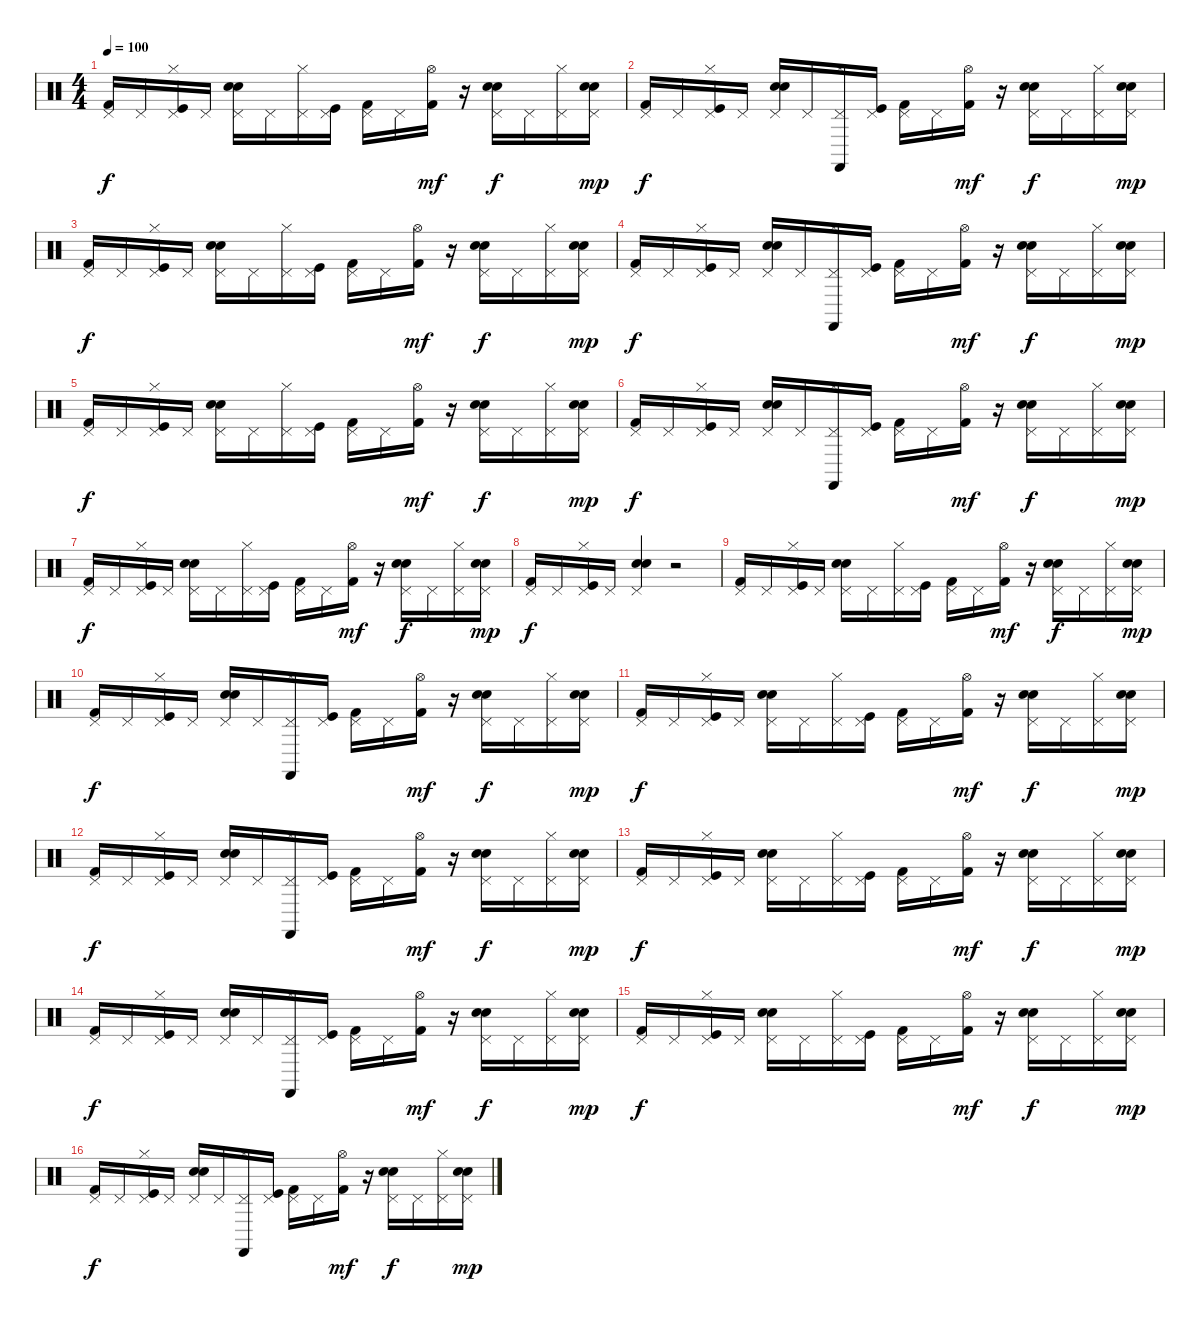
\track "" {instrument percussion}
\staff {score}
\articulation defaults
\ts (4 4)
\tempo 100
\clef neutral
\ks c
("Pedal Hi-Hat (hit)" "Kick (hit) 2").16{dy f} "Pedal Hi-Hat (hit)".16 ("Hi-Hat (closed)" "Pedal Hi-Hat (hit)" "Kick (hit)").16 "Pedal Hi-Hat (hit)".16 ("Snare (hit) 2" "Electric Snare (hit)" "Pedal Hi-Hat (hit)").16 "Pedal Hi-Hat (hit)".16 ("Hi-Hat (closed)" "Pedal Hi-Hat (hit)").16 ("Pedal Hi-Hat (hit)" "Kick (hit)").16 ("Pedal Hi-Hat (hit)" "Kick (hit) 2").16 "Pedal Hi-Hat (hit)".16 ("Hi-Hat (open)" "Kick (hit) 2").16{dy mf} r.16 ("Snare (hit) 2" "Electric Snare (hit)" "Pedal Hi-Hat (hit)").16{dy f} "Pedal Hi-Hat (hit)".16 ("Hi-Hat (closed)" "Pedal Hi-Hat (hit)").16 ("Pedal Hi-Hat (hit)" "Electric Snare (hit)" "Snare (hit) 2").16{dy mp} |
("Pedal Hi-Hat (hit)" "Kick (hit) 2").16{dy f} "Pedal Hi-Hat (hit)".16 ("Hi-Hat (closed)" "Pedal Hi-Hat (hit)" "Kick (hit)").16 "Pedal Hi-Hat (hit)".16 ("Snare (hit) 2" "Electric Snare (hit)" "Pedal Hi-Hat (hit)").16 "Pedal Hi-Hat (hit)".16 ("Castanets (hit)" "Hi-Hat (closed)" "Pedal Hi-Hat (hit)").16 ("Pedal Hi-Hat (hit)" "Kick (hit)").16 ("Pedal Hi-Hat (hit)" "Kick (hit) 2").16 "Pedal Hi-Hat (hit)".16 ("Hi-Hat (open)" "Kick (hit) 2").16{dy mf} r.16 ("Snare (hit) 2" "Electric Snare (hit)" "Pedal Hi-Hat (hit)").16{dy f} "Pedal Hi-Hat (hit)".16 ("Hi-Hat (closed)" "Pedal Hi-Hat (hit)").16 ("Pedal Hi-Hat (hit)" "Electric Snare (hit)" "Snare (hit) 2").16{dy mp} |
("Pedal Hi-Hat (hit)" "Kick (hit) 2").16{dy f} "Pedal Hi-Hat (hit)".16 ("Hi-Hat (closed)" "Pedal Hi-Hat (hit)" "Kick (hit)").16 "Pedal Hi-Hat (hit)".16 ("Snare (hit) 2" "Electric Snare (hit)" "Pedal Hi-Hat (hit)").16 "Pedal Hi-Hat (hit)".16 ("Hi-Hat (closed)" "Pedal Hi-Hat (hit)").16 ("Pedal Hi-Hat (hit)" "Kick (hit)").16 ("Pedal Hi-Hat (hit)" "Kick (hit) 2").16 "Pedal Hi-Hat (hit)".16 ("Hi-Hat (open)" "Kick (hit) 2").16{dy mf} r.16 ("Snare (hit) 2" "Electric Snare (hit)" "Pedal Hi-Hat (hit)").16{dy f} "Pedal Hi-Hat (hit)".16 ("Hi-Hat (closed)" "Pedal Hi-Hat (hit)").16 ("Pedal Hi-Hat (hit)" "Electric Snare (hit)" "Snare (hit) 2").16{dy mp} |
("Pedal Hi-Hat (hit)" "Kick (hit) 2").16{dy f} "Pedal Hi-Hat (hit)".16 ("Hi-Hat (closed)" "Pedal Hi-Hat (hit)" "Kick (hit)").16 "Pedal Hi-Hat (hit)".16 ("Snare (hit) 2" "Electric Snare (hit)" "Pedal Hi-Hat (hit)").16 "Pedal Hi-Hat (hit)".16 ("Castanets (hit)" "Hi-Hat (closed)" "Pedal Hi-Hat (hit)").16 ("Pedal Hi-Hat (hit)" "Kick (hit)").16 ("Pedal Hi-Hat (hit)" "Kick (hit) 2").16 "Pedal Hi-Hat (hit)".16 ("Hi-Hat (open)" "Kick (hit) 2").16{dy mf} r.16 ("Snare (hit) 2" "Electric Snare (hit)" "Pedal Hi-Hat (hit)").16{dy f} "Pedal Hi-Hat (hit)".16 ("Hi-Hat (closed)" "Pedal Hi-Hat (hit)").16 ("Pedal Hi-Hat (hit)" "Electric Snare (hit)" "Snare (hit) 2").16{dy mp} |
("Pedal Hi-Hat (hit)" "Kick (hit) 2").16{dy f} "Pedal Hi-Hat (hit)".16 ("Hi-Hat (closed)" "Pedal Hi-Hat (hit)" "Kick (hit)").16 "Pedal Hi-Hat (hit)".16 ("Snare (hit) 2" "Electric Snare (hit)" "Pedal Hi-Hat (hit)").16 "Pedal Hi-Hat (hit)".16 ("Hi-Hat (closed)" "Pedal Hi-Hat (hit)").16 ("Pedal Hi-Hat (hit)" "Kick (hit)").16 ("Pedal Hi-Hat (hit)" "Kick (hit) 2").16 "Pedal Hi-Hat (hit)".16 ("Hi-Hat (open)" "Kick (hit) 2").16{dy mf} r.16 ("Snare (hit) 2" "Electric Snare (hit)" "Pedal Hi-Hat (hit)").16{dy f} "Pedal Hi-Hat (hit)".16 ("Hi-Hat (closed)" "Pedal Hi-Hat (hit)").16 ("Pedal Hi-Hat (hit)" "Electric Snare (hit)" "Snare (hit) 2").16{dy mp} |
("Pedal Hi-Hat (hit)" "Kick (hit) 2").16{dy f} "Pedal Hi-Hat (hit)".16 ("Hi-Hat (closed)" "Pedal Hi-Hat (hit)" "Kick (hit)").16 "Pedal Hi-Hat (hit)".16 ("Snare (hit) 2" "Electric Snare (hit)" "Pedal Hi-Hat (hit)").16 "Pedal Hi-Hat (hit)".16 ("Castanets (hit)" "Hi-Hat (closed)" "Pedal Hi-Hat (hit)").16 ("Pedal Hi-Hat (hit)" "Kick (hit)").16 ("Pedal Hi-Hat (hit)" "Kick (hit) 2").16 "Pedal Hi-Hat (hit)".16 ("Hi-Hat (open)" "Kick (hit) 2").16{dy mf} r.16 ("Snare (hit) 2" "Electric Snare (hit)" "Pedal Hi-Hat (hit)").16{dy f} "Pedal Hi-Hat (hit)".16 ("Hi-Hat (closed)" "Pedal Hi-Hat (hit)").16 ("Pedal Hi-Hat (hit)" "Electric Snare (hit)" "Snare (hit) 2").16{dy mp} |
("Pedal Hi-Hat (hit)" "Kick (hit) 2").16{dy f} "Pedal Hi-Hat (hit)".16 ("Hi-Hat (closed)" "Pedal Hi-Hat (hit)" "Kick (hit)").16 "Pedal Hi-Hat (hit)".16 ("Snare (hit) 2" "Electric Snare (hit)" "Pedal Hi-Hat (hit)").16 "Pedal Hi-Hat (hit)".16 ("Hi-Hat (closed)" "Pedal Hi-Hat (hit)").16 ("Pedal Hi-Hat (hit)" "Kick (hit)").16 ("Pedal Hi-Hat (hit)" "Kick (hit) 2").16 "Pedal Hi-Hat (hit)".16 ("Hi-Hat (open)" "Kick (hit) 2").16{dy mf} r.16 ("Snare (hit) 2" "Electric Snare (hit)" "Pedal Hi-Hat (hit)").16{dy f} "Pedal Hi-Hat (hit)".16 ("Hi-Hat (closed)" "Pedal Hi-Hat (hit)").16 ("Pedal Hi-Hat (hit)" "Electric Snare (hit)" "Snare (hit) 2").16{dy mp} |
("Pedal Hi-Hat (hit)" "Kick (hit) 2").16{dy f} "Pedal Hi-Hat (hit)".16 ("Hi-Hat (closed)" "Pedal Hi-Hat (hit)" "Kick (hit)").16 "Pedal Hi-Hat (hit)".16 ("Snare (hit) 2" "Electric Snare (hit)" "Pedal Hi-Hat (hit)").4 r.2 |
("Pedal Hi-Hat (hit)" "Kick (hit) 2").16 "Pedal Hi-Hat (hit)".16 ("Hi-Hat (closed)" "Pedal Hi-Hat (hit)" "Kick (hit)").16 "Pedal Hi-Hat (hit)".16 ("Snare (hit) 2" "Electric Snare (hit)" "Pedal Hi-Hat (hit)").16 "Pedal Hi-Hat (hit)".16 ("Hi-Hat (closed)" "Pedal Hi-Hat (hit)").16 ("Pedal Hi-Hat (hit)" "Kick (hit)").16 ("Pedal Hi-Hat (hit)" "Kick (hit) 2").16 "Pedal Hi-Hat (hit)".16 ("Hi-Hat (open)" "Kick (hit) 2").16{dy mf} r.16 ("Snare (hit) 2" "Electric Snare (hit)" "Pedal Hi-Hat (hit)").16{dy f} "Pedal Hi-Hat (hit)".16 ("Hi-Hat (closed)" "Pedal Hi-Hat (hit)").16 ("Pedal Hi-Hat (hit)" "Electric Snare (hit)" "Snare (hit) 2").16{dy mp} |
("Pedal Hi-Hat (hit)" "Kick (hit) 2").16{dy f} "Pedal Hi-Hat (hit)".16 ("Hi-Hat (closed)" "Pedal Hi-Hat (hit)" "Kick (hit)").16 "Pedal Hi-Hat (hit)".16 ("Snare (hit) 2" "Electric Snare (hit)" "Pedal Hi-Hat (hit)").16 "Pedal Hi-Hat (hit)".16 ("Castanets (hit)" "Hi-Hat (closed)" "Pedal Hi-Hat (hit)").16 ("Pedal Hi-Hat (hit)" "Kick (hit)").16 ("Pedal Hi-Hat (hit)" "Kick (hit) 2").16 "Pedal Hi-Hat (hit)".16 ("Hi-Hat (open)" "Kick (hit) 2").16{dy mf} r.16 ("Snare (hit) 2" "Electric Snare (hit)" "Pedal Hi-Hat (hit)").16{dy f} "Pedal Hi-Hat (hit)".16 ("Hi-Hat (closed)" "Pedal Hi-Hat (hit)").16 ("Pedal Hi-Hat (hit)" "Snare (hit) 2" "Electric Snare (hit)").16{dy mp} |
("Pedal Hi-Hat (hit)" "Kick (hit) 2").16{dy f} "Pedal Hi-Hat (hit)".16 ("Hi-Hat (closed)" "Pedal Hi-Hat (hit)" "Kick (hit)").16 "Pedal Hi-Hat (hit)".16 ("Snare (hit) 2" "Electric Snare (hit)" "Pedal Hi-Hat (hit)").16 "Pedal Hi-Hat (hit)".16 ("Hi-Hat (closed)" "Pedal Hi-Hat (hit)").16 ("Pedal Hi-Hat (hit)" "Kick (hit)").16 ("Pedal Hi-Hat (hit)" "Kick (hit) 2").16 "Pedal Hi-Hat (hit)".16 ("Hi-Hat (open)" "Kick (hit) 2").16{dy mf} r.16 ("Snare (hit) 2" "Electric Snare (hit)" "Pedal Hi-Hat (hit)").16{dy f} "Pedal Hi-Hat (hit)".16 ("Hi-Hat (closed)" "Pedal Hi-Hat (hit)").16 ("Pedal Hi-Hat (hit)" "Snare (hit) 2" "Electric Snare (hit)").16{dy mp} |
("Pedal Hi-Hat (hit)" "Kick (hit) 2").16{dy f} "Pedal Hi-Hat (hit)".16 ("Hi-Hat (closed)" "Pedal Hi-Hat (hit)" "Kick (hit)").16 "Pedal Hi-Hat (hit)".16 ("Snare (hit) 2" "Electric Snare (hit)" "Pedal Hi-Hat (hit)").16 "Pedal Hi-Hat (hit)".16 ("Castanets (hit)" "Hi-Hat (closed)" "Pedal Hi-Hat (hit)").16 ("Pedal Hi-Hat (hit)" "Kick (hit)").16 ("Pedal Hi-Hat (hit)" "Kick (hit) 2").16 "Pedal Hi-Hat (hit)".16 ("Hi-Hat (open)" "Kick (hit) 2").16{dy mf} r.16 ("Snare (hit) 2" "Electric Snare (hit)" "Pedal Hi-Hat (hit)").16{dy f} "Pedal Hi-Hat (hit)".16 ("Hi-Hat (closed)" "Pedal Hi-Hat (hit)").16 ("Pedal Hi-Hat (hit)" "Snare (hit) 2" "Electric Snare (hit)").16{dy mp} |
("Pedal Hi-Hat (hit)" "Kick (hit) 2").16{dy f} "Pedal Hi-Hat (hit)".16 ("Hi-Hat (closed)" "Pedal Hi-Hat (hit)" "Kick (hit)").16 "Pedal Hi-Hat (hit)".16 ("Snare (hit) 2" "Electric Snare (hit)" "Pedal Hi-Hat (hit)").16 "Pedal Hi-Hat (hit)".16 ("Hi-Hat (closed)" "Pedal Hi-Hat (hit)").16 ("Pedal Hi-Hat (hit)" "Kick (hit)").16 ("Pedal Hi-Hat (hit)" "Kick (hit) 2").16 "Pedal Hi-Hat (hit)".16 ("Hi-Hat (open)" "Kick (hit) 2").16{dy mf} r.16 ("Snare (hit) 2" "Electric Snare (hit)" "Pedal Hi-Hat (hit)").16{dy f} "Pedal Hi-Hat (hit)".16 ("Hi-Hat (closed)" "Pedal Hi-Hat (hit)").16 ("Pedal Hi-Hat (hit)" "Electric Snare (hit)" "Snare (hit) 2").16{dy mp} |
("Pedal Hi-Hat (hit)" "Kick (hit) 2").16{dy f} "Pedal Hi-Hat (hit)".16 ("Hi-Hat (closed)" "Pedal Hi-Hat (hit)" "Kick (hit)").16 "Pedal Hi-Hat (hit)".16 ("Snare (hit) 2" "Electric Snare (hit)" "Pedal Hi-Hat (hit)").16 "Pedal Hi-Hat (hit)".16 ("Castanets (hit)" "Hi-Hat (closed)" "Pedal Hi-Hat (hit)").16 ("Pedal Hi-Hat (hit)" "Kick (hit)").16 ("Pedal Hi-Hat (hit)" "Kick (hit) 2").16 "Pedal Hi-Hat (hit)".16 ("Hi-Hat (open)" "Kick (hit) 2").16{dy mf} r.16 ("Snare (hit) 2" "Electric Snare (hit)" "Pedal Hi-Hat (hit)").16{dy f} "Pedal Hi-Hat (hit)".16 ("Hi-Hat (closed)" "Pedal Hi-Hat (hit)").16 ("Pedal Hi-Hat (hit)" "Snare (hit) 2" "Electric Snare (hit)").16{dy mp} |
("Pedal Hi-Hat (hit)" "Kick (hit) 2").16{dy f} "Pedal Hi-Hat (hit)".16 ("Hi-Hat (closed)" "Pedal Hi-Hat (hit)" "Kick (hit)").16 "Pedal Hi-Hat (hit)".16 ("Snare (hit) 2" "Electric Snare (hit)" "Pedal Hi-Hat (hit)").16 "Pedal Hi-Hat (hit)".16 ("Hi-Hat (closed)" "Pedal Hi-Hat (hit)").16 ("Pedal Hi-Hat (hit)" "Kick (hit)").16 ("Pedal Hi-Hat (hit)" "Kick (hit) 2").16 "Pedal Hi-Hat (hit)".16 ("Hi-Hat (open)" "Kick (hit) 2").16{dy mf} r.16 ("Snare (hit) 2" "Electric Snare (hit)" "Pedal Hi-Hat (hit)").16{dy f} "Pedal Hi-Hat (hit)".16 ("Hi-Hat (closed)" "Pedal Hi-Hat (hit)").16 ("Pedal Hi-Hat (hit)" "Snare (hit) 2" "Electric Snare (hit)").16{dy mp} |
("Pedal Hi-Hat (hit)" "Kick (hit) 2").16{dy f} "Pedal Hi-Hat (hit)".16 ("Hi-Hat (closed)" "Pedal Hi-Hat (hit)" "Kick (hit)").16 "Pedal Hi-Hat (hit)".16 ("Snare (hit) 2" "Electric Snare (hit)" "Pedal Hi-Hat (hit)").16 "Pedal Hi-Hat (hit)".16 ("Castanets (hit)" "Hi-Hat (closed)" "Pedal Hi-Hat (hit)").16 ("Pedal Hi-Hat (hit)" "Kick (hit)").16 ("Pedal Hi-Hat (hit)" "Kick (hit) 2").16 "Pedal Hi-Hat (hit)".16 ("Hi-Hat (open)" "Kick (hit) 2").16{dy mf} r.16 ("Snare (hit) 2" "Electric Snare (hit)" "Pedal Hi-Hat (hit)").16{dy f} "Pedal Hi-Hat (hit)".16 ("Hi-Hat (closed)" "Pedal Hi-Hat (hit)").16 ("Pedal Hi-Hat (hit)" "Snare (hit) 2" "Electric Snare (hit)").16{dy mp}
